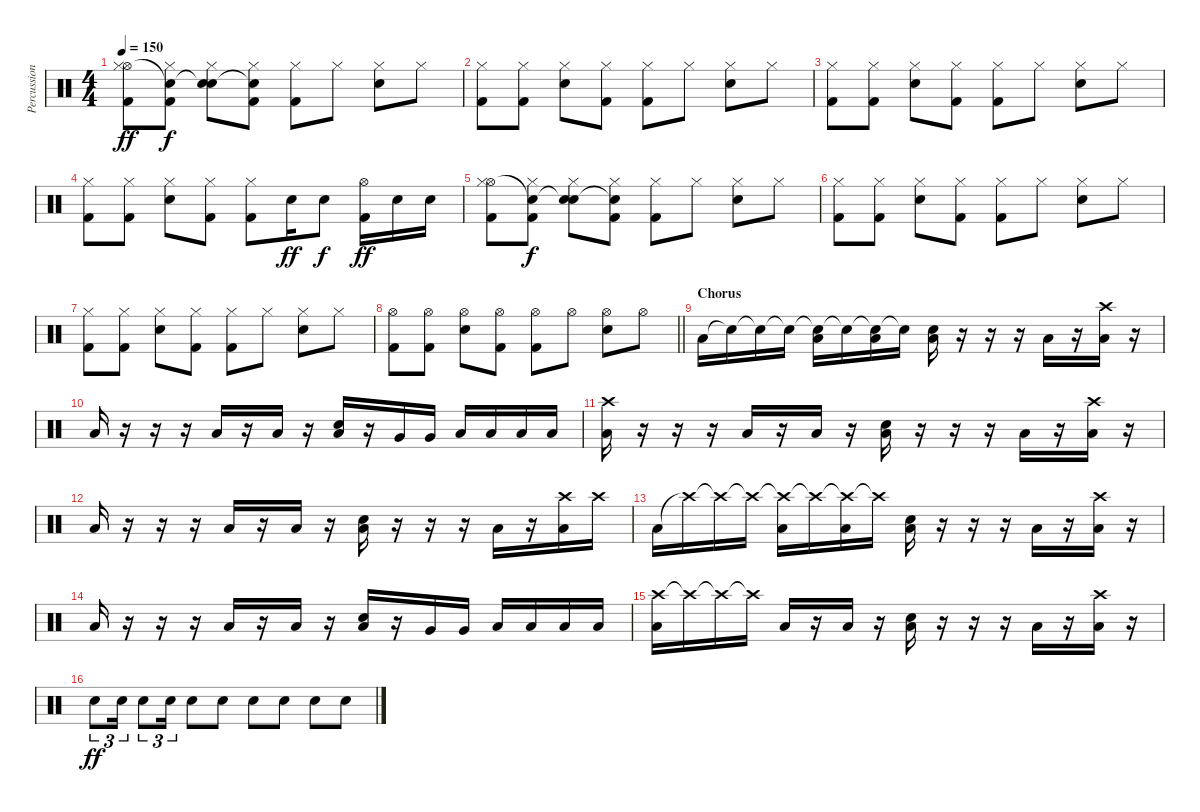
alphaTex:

\track ("Percussion" "Percussion") {instrument percussion}
\staff {score}
\articulation defaults
\ts (4 4)
\tempo 150
\clef neutral
\ks c
("Hi-Hat (open)" "Kick (hit) 2" "Hi-Hat (closed)").8{dy ff} ("Snare (hit)"{t} "Kick (hit) 2" "Hi-Hat (closed)").8{dy f} ("Snare (hit)"{t} "Snare (hit) 2" "Hi-Hat (closed)").8 ("Snare (hit)"{t} "Kick (hit) 2" "Hi-Hat (closed)").8 ("Kick (hit) 2" "Hi-Hat (closed)").8 "Hi-Hat (closed)".8 ("Snare (hit) 2" "Hi-Hat (closed)").8 "Hi-Hat (closed)".8 |
("Kick (hit) 2" "Hi-Hat (closed)").8 ("Kick (hit) 2" "Hi-Hat (closed)").8 ("Snare (hit) 2" "Hi-Hat (closed)").8 ("Kick (hit) 2" "Hi-Hat (closed)").8 ("Kick (hit) 2" "Hi-Hat (closed)").8 "Hi-Hat (closed)".8 ("Snare (hit) 2" "Hi-Hat (closed)").8 "Hi-Hat (closed)".8 |
("Kick (hit) 2" "Hi-Hat (closed)").8 ("Kick (hit) 2" "Hi-Hat (closed)").8 ("Snare (hit) 2" "Hi-Hat (closed)").8 ("Kick (hit) 2" "Hi-Hat (closed)").8 ("Kick (hit) 2" "Hi-Hat (closed)").8 "Hi-Hat (closed)".8 ("Snare (hit) 2" "Hi-Hat (closed)").8 "Hi-Hat (closed)".8 |
("Kick (hit) 2" "Hi-Hat (closed)").8 ("Kick (hit) 2" "Hi-Hat (closed)").8 ("Snare (hit) 2" "Hi-Hat (closed)").8 ("Kick (hit) 2" "Hi-Hat (closed)").8 ("Kick (hit) 2" "Hi-Hat (closed)").8 "Snare (hit) 2".16{dy ff} "Snare (hit) 2".8{dy f} ("Kick (hit) 2" "Hi-Hat (open)").16{dy ff} "Snare (hit) 2".16 "Snare (hit) 2".16 |
("Hi-Hat (open)" "Kick (hit) 2" "Hi-Hat (closed)").8 ("Snare (hit)"{t} "Kick (hit) 2" "Hi-Hat (closed)").8{dy f} ("Snare (hit)"{t} "Snare (hit) 2" "Hi-Hat (closed)").8 ("Snare (hit)"{t} "Kick (hit) 2" "Hi-Hat (closed)").8 ("Kick (hit) 2" "Hi-Hat (closed)").8 "Hi-Hat (closed)".8 ("Snare (hit) 2" "Hi-Hat (closed)").8 "Hi-Hat (closed)".8 |
("Kick (hit) 2" "Hi-Hat (closed)").8 ("Kick (hit) 2" "Hi-Hat (closed)").8 ("Snare (hit) 2" "Hi-Hat (closed)").8 ("Kick (hit) 2" "Hi-Hat (closed)").8 ("Kick (hit) 2" "Hi-Hat (closed)").8 "Hi-Hat (closed)".8 ("Snare (hit) 2" "Hi-Hat (closed)").8 "Hi-Hat (closed)".8 |
("Kick (hit) 2" "Hi-Hat (closed)").8 ("Kick (hit) 2" "Hi-Hat (closed)").8 ("Snare (hit) 2" "Hi-Hat (closed)").8 ("Kick (hit) 2" "Hi-Hat (closed)").8 ("Kick (hit) 2" "Hi-Hat (closed)").8 "Hi-Hat (closed)".8 ("Snare (hit) 2" "Hi-Hat (closed)").8 "Hi-Hat (closed)".8 |
\barLineRight lightlight
("Kick (hit) 2" "Hi-Hat (open)").8 ("Kick (hit) 2" "Hi-Hat (open)").8 ("Snare (hit) 2" "Hi-Hat (open)").8 ("Kick (hit) 2" "Hi-Hat (open)").8 ("Kick (hit) 2" "Hi-Hat (open)").8 "Hi-Hat (open)".8 ("Snare (hit) 2" "Hi-Hat (open)").8 "Hi-Hat (open)".8 |
\section ("" "Chorus")
"Low Floor Tom (hit)".16 "Snare (hit) 2"{t}.16 "Snare (hit) 2"{t}.16 "Snare (hit) 2"{t}.16 ("Snare (hit) 2"{t} "Low Floor Tom (hit)").16 "Snare (hit) 2"{t}.16 ("Snare (hit) 2"{t} "Low Floor Tom (hit)").16 "Snare (hit) 2"{t}.16 ("Snare (hit) 2" "Low Floor Tom (hit)").16 r.16 r.16 r.16 "Low Floor Tom (hit)".16 r.16 ("Crash high (hit)" "Low Floor Tom (hit)").16 r.16 |
"Low Floor Tom (hit)".16 r.16 r.16 r.16 "Low Floor Tom (hit)".16 r.16 "Low Floor Tom (hit)".16 r.16 ("Snare (hit) 2" "Low Floor Tom (hit)").16 r.16 "Very Low Tom (hit)".16 "Very Low Tom (hit)".16 "Low Floor Tom (hit)".16 "Low Floor Tom (hit)".16 "Low Floor Tom (hit)".16 "Low Floor Tom (hit)".16 |
("Crash high (hit)" "Low Floor Tom (hit)").16 r.16 r.16 r.16 "Low Floor Tom (hit)".16 r.16 "Low Floor Tom (hit)".16 r.16 ("Snare (hit) 2" "Low Floor Tom (hit)").16 r.16 r.16 r.16 "Low Floor Tom (hit)".16 r.16 ("Crash high (hit)" "Low Floor Tom (hit)").16 r.16 |
"Low Floor Tom (hit)".16 r.16 r.16 r.16 "Low Floor Tom (hit)".16 r.16 "Low Floor Tom (hit)".16 r.16 ("Snare (hit) 2" "Low Floor Tom (hit)").16 r.16 r.16 r.16 "Low Floor Tom (hit)".16 r.16 ("Crash high (hit)" "Low Floor Tom (hit)").16 "Crash high (hit)".16 |
"Low Floor Tom (hit)".16 "Crash high (hit)"{t}.16 "Crash high (hit)"{t}.16 "Crash high (hit)"{t}.16 ("Crash high (hit)"{t} "Low Floor Tom (hit)").16 "Crash high (hit)"{t}.16 ("Crash high (hit)"{t} "Low Floor Tom (hit)").16 "Crash high (hit)"{t}.16 ("Snare (hit) 2" "Low Floor Tom (hit)").16 r.16 r.16 r.16 "Low Floor Tom (hit)".16 r.16 ("Crash high (hit)" "Low Floor Tom (hit)").16 r.16 |
"Low Floor Tom (hit)".16 r.16 r.16 r.16 "Low Floor Tom (hit)".16 r.16 "Low Floor Tom (hit)".16 r.16 ("Snare (hit) 2" "Low Floor Tom (hit)").16 r.16 "Very Low Tom (hit)".16 "Very Low Tom (hit)".16 "Low Floor Tom (hit)".16 "Low Floor Tom (hit)".16 "Low Floor Tom (hit)".16 "Low Floor Tom (hit)".16 |
("Crash high (hit)" "Low Floor Tom (hit)").16 "Crash high (hit)"{t}.16 "Crash high (hit)"{t}.16 "Crash high (hit)"{t}.16 "Low Floor Tom (hit)".16 r.16 "Low Floor Tom (hit)".16 r.16 ("Snare (hit) 2" "Low Floor Tom (hit)").16 r.16 r.16 r.16 "Low Floor Tom (hit)".16 r.16 ("Crash high (hit)" "Low Floor Tom (hit)").16 r.16 |
"Snare (hit) 2".8{tu (3 2) dy ff} "Snare (hit) 2".16{tu (3 2)} "Snare (hit) 2".8{tu (3 2)} "Snare (hit) 2".16{tu (3 2)} "Snare (hit) 2".8 "Snare (hit) 2".8 "Snare (hit) 2".8 "Snare (hit) 2".8 "Snare (hit) 2".8 "Snare (hit) 2".8
